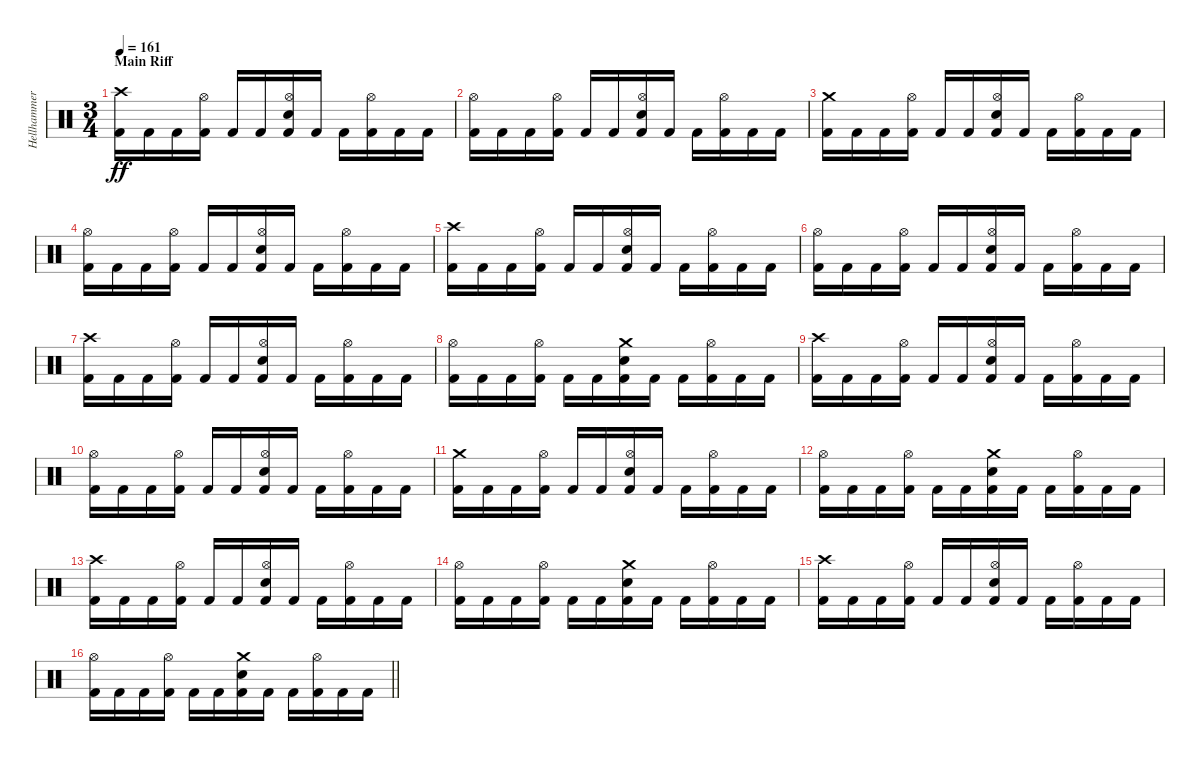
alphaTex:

\track ("Hellhammer" "Hellhammer") {instrument percussion}
\staff {score}
\articulation defaults
\ts (3 4)
\section ("" "Main Riff")
\tempo 161
\clef neutral
\ks c
("Crash high (hit)" "Kick (hit) 2").16{dy ff} "Kick (hit) 2".16 "Kick (hit) 2".16 ("Hi-Hat (open)" "Kick (hit) 2").16 "Kick (hit) 2".16 "Kick (hit) 2".16 ("Hi-Hat (open)" "Snare (hit) 2" "Kick (hit) 2").16 "Kick (hit) 2".16 "Kick (hit) 2".16 ("Hi-Hat (open)" "Kick (hit) 2").16 "Kick (hit) 2".16 "Kick (hit) 2".16 |
("Hi-Hat (open)" "Kick (hit) 2").16 "Kick (hit) 2".16 "Kick (hit) 2".16 ("Hi-Hat (open)" "Kick (hit) 2").16 "Kick (hit) 2".16 "Kick (hit) 2".16 ("Hi-Hat (open)" "Snare (hit) 2" "Kick (hit) 2").16 "Kick (hit) 2".16 "Kick (hit) 2".16 ("Hi-Hat (open)" "Kick (hit) 2").16 "Kick (hit) 2".16 "Kick (hit) 2".16 |
("Crash medium (hit)" "Kick (hit) 2").16 "Kick (hit) 2".16 "Kick (hit) 2".16 ("Hi-Hat (open)" "Kick (hit) 2").16 "Kick (hit) 2".16 "Kick (hit) 2".16 ("Hi-Hat (open)" "Snare (hit) 2" "Kick (hit) 2").16 "Kick (hit) 2".16 "Kick (hit) 2".16 ("Hi-Hat (open)" "Kick (hit) 2").16 "Kick (hit) 2".16 "Kick (hit) 2".16 |
("Hi-Hat (open)" "Kick (hit) 2").16 "Kick (hit) 2".16 "Kick (hit) 2".16 ("Hi-Hat (open)" "Kick (hit) 2").16 "Kick (hit) 2".16 "Kick (hit) 2".16 ("Hi-Hat (open)" "Snare (hit) 2" "Kick (hit) 2").16 "Kick (hit) 2".16 "Kick (hit) 2".16 ("Hi-Hat (open)" "Kick (hit) 2").16 "Kick (hit) 2".16 "Kick (hit) 2".16 |
("Crash high (hit)" "Kick (hit) 2").16 "Kick (hit) 2".16 "Kick (hit) 2".16 ("Hi-Hat (open)" "Kick (hit) 2").16 "Kick (hit) 2".16 "Kick (hit) 2".16 ("Hi-Hat (open)" "Snare (hit) 2" "Kick (hit) 2").16 "Kick (hit) 2".16 "Kick (hit) 2".16 ("Hi-Hat (open)" "Kick (hit) 2").16 "Kick (hit) 2".16 "Kick (hit) 2".16 |
("Hi-Hat (open)" "Kick (hit) 2").16 "Kick (hit) 2".16 "Kick (hit) 2".16 ("Hi-Hat (open)" "Kick (hit) 2").16 "Kick (hit) 2".16 "Kick (hit) 2".16 ("Hi-Hat (open)" "Snare (hit) 2" "Kick (hit) 2").16 "Kick (hit) 2".16 "Kick (hit) 2".16 ("Hi-Hat (open)" "Kick (hit) 2").16 "Kick (hit) 2".16 "Kick (hit) 2".16 |
("Crash high (hit)" "Kick (hit) 2").16 "Kick (hit) 2".16 "Kick (hit) 2".16 ("Hi-Hat (open)" "Kick (hit) 2").16 "Kick (hit) 2".16 "Kick (hit) 2".16 ("Hi-Hat (open)" "Snare (hit) 2" "Kick (hit) 2").16 "Kick (hit) 2".16 "Kick (hit) 2".16 ("Hi-Hat (open)" "Kick (hit) 2").16 "Kick (hit) 2".16 "Kick (hit) 2".16 |
("Hi-Hat (open)" "Kick (hit) 2").16 "Kick (hit) 2".16 "Kick (hit) 2".16 ("Hi-Hat (open)" "Kick (hit) 2").16 "Kick (hit) 2".16 "Kick (hit) 2".16 ("Crash medium (hit)" "Snare (hit) 2" "Kick (hit) 2").16 "Kick (hit) 2".16 "Kick (hit) 2".16 ("Hi-Hat (open)" "Kick (hit) 2").16 "Kick (hit) 2".16 "Kick (hit) 2".16 |
("Crash high (hit)" "Kick (hit) 2").16 "Kick (hit) 2".16 "Kick (hit) 2".16 ("Hi-Hat (open)" "Kick (hit) 2").16 "Kick (hit) 2".16 "Kick (hit) 2".16 ("Hi-Hat (open)" "Snare (hit) 2" "Kick (hit) 2").16 "Kick (hit) 2".16 "Kick (hit) 2".16 ("Hi-Hat (open)" "Kick (hit) 2").16 "Kick (hit) 2".16 "Kick (hit) 2".16 |
("Hi-Hat (open)" "Kick (hit) 2").16 "Kick (hit) 2".16 "Kick (hit) 2".16 ("Hi-Hat (open)" "Kick (hit) 2").16 "Kick (hit) 2".16 "Kick (hit) 2".16 ("Hi-Hat (open)" "Snare (hit) 2" "Kick (hit) 2").16 "Kick (hit) 2".16 "Kick (hit) 2".16 ("Hi-Hat (open)" "Kick (hit) 2").16 "Kick (hit) 2".16 "Kick (hit) 2".16 |
("Crash medium (hit)" "Kick (hit) 2").16 "Kick (hit) 2".16 "Kick (hit) 2".16 ("Hi-Hat (open)" "Kick (hit) 2").16 "Kick (hit) 2".16 "Kick (hit) 2".16 ("Hi-Hat (open)" "Snare (hit) 2" "Kick (hit) 2").16 "Kick (hit) 2".16 "Kick (hit) 2".16 ("Hi-Hat (open)" "Kick (hit) 2").16 "Kick (hit) 2".16 "Kick (hit) 2".16 |
("Hi-Hat (open)" "Kick (hit) 2").16 "Kick (hit) 2".16 "Kick (hit) 2".16 ("Hi-Hat (open)" "Kick (hit) 2").16 "Kick (hit) 2".16 "Kick (hit) 2".16 ("Crash medium (hit)" "Snare (hit) 2" "Kick (hit) 2").16 "Kick (hit) 2".16 "Kick (hit) 2".16 ("Hi-Hat (open)" "Kick (hit) 2").16 "Kick (hit) 2".16 "Kick (hit) 2".16 |
("Crash high (hit)" "Kick (hit) 2").16 "Kick (hit) 2".16 "Kick (hit) 2".16 ("Hi-Hat (open)" "Kick (hit) 2").16 "Kick (hit) 2".16 "Kick (hit) 2".16 ("Hi-Hat (open)" "Snare (hit) 2" "Kick (hit) 2").16 "Kick (hit) 2".16 "Kick (hit) 2".16 ("Hi-Hat (open)" "Kick (hit) 2").16 "Kick (hit) 2".16 "Kick (hit) 2".16 |
("Hi-Hat (open)" "Kick (hit) 2").16 "Kick (hit) 2".16 "Kick (hit) 2".16 ("Hi-Hat (open)" "Kick (hit) 2").16 "Kick (hit) 2".16 "Kick (hit) 2".16 ("Crash medium (hit)" "Snare (hit) 2" "Kick (hit) 2").16 "Kick (hit) 2".16 "Kick (hit) 2".16 ("Hi-Hat (open)" "Kick (hit) 2").16 "Kick (hit) 2".16 "Kick (hit) 2".16 |
("Crash high (hit)" "Kick (hit) 2").16 "Kick (hit) 2".16 "Kick (hit) 2".16 ("Hi-Hat (open)" "Kick (hit) 2").16 "Kick (hit) 2".16 "Kick (hit) 2".16 ("Hi-Hat (open)" "Snare (hit) 2" "Kick (hit) 2").16 "Kick (hit) 2".16 "Kick (hit) 2".16 ("Hi-Hat (open)" "Kick (hit) 2").16 "Kick (hit) 2".16 "Kick (hit) 2".16 |
\barLineRight lightlight
("Hi-Hat (open)" "Kick (hit) 2").16 "Kick (hit) 2".16 "Kick (hit) 2".16 ("Hi-Hat (open)" "Kick (hit) 2").16 "Kick (hit) 2".16 "Kick (hit) 2".16 ("Crash medium (hit)" "Snare (hit) 2" "Kick (hit) 2").16 "Kick (hit) 2".16 "Kick (hit) 2".16 ("Hi-Hat (open)" "Kick (hit) 2").16 "Kick (hit) 2".16 "Kick (hit) 2".16
